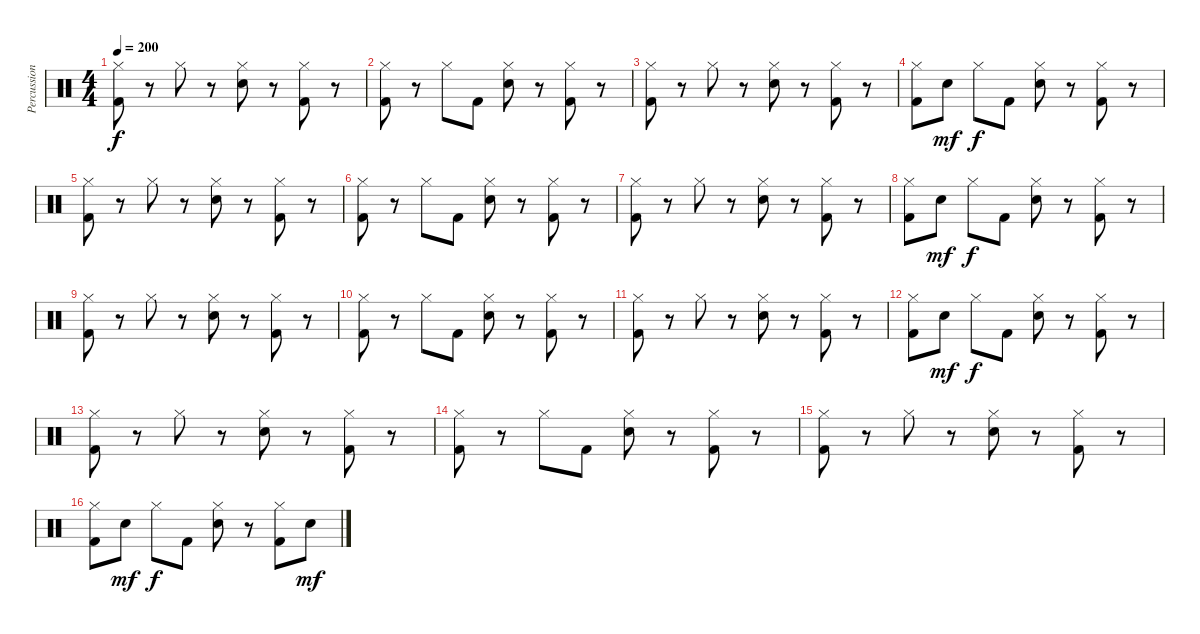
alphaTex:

\track ("Percussion" "Percussion") {instrument percussion}
\staff {score}
\articulation defaults
\ts (4 4)
\tempo 200
\clef neutral
\ks c
("Kick (hit) 2" "Hi-Hat (closed)").8{dy f} r.8 "Hi-Hat (closed)".8 r.8 ("Snare (hit) 2" "Hi-Hat (closed)").8 r.8 ("Hi-Hat (closed)" "Kick (hit) 2").8 r.8 |
("Kick (hit) 2" "Hi-Hat (closed)").8 r.8 "Hi-Hat (closed)".8 "Kick (hit) 2".8 ("Snare (hit) 2" "Hi-Hat (closed)").8 r.8 ("Kick (hit) 2" "Hi-Hat (closed)").8 r.8 |
("Kick (hit) 2" "Hi-Hat (closed)").8 r.8 "Hi-Hat (closed)".8 r.8 ("Snare (hit) 2" "Hi-Hat (closed)").8 r.8 ("Hi-Hat (closed)" "Kick (hit) 2").8 r.8 |
("Kick (hit) 2" "Hi-Hat (closed)").8 "Snare (hit) 2".8{dy mf} "Hi-Hat (closed)".8{dy f} "Kick (hit) 2".8 ("Snare (hit) 2" "Hi-Hat (closed)").8 r.8 ("Kick (hit) 2" "Hi-Hat (closed)").8 r.8 |
("Kick (hit) 2" "Hi-Hat (closed)").8 r.8 "Hi-Hat (closed)".8 r.8 ("Snare (hit) 2" "Hi-Hat (closed)").8 r.8 ("Hi-Hat (closed)" "Kick (hit) 2").8 r.8 |
("Kick (hit) 2" "Hi-Hat (closed)").8 r.8 "Hi-Hat (closed)".8 "Kick (hit) 2".8 ("Snare (hit) 2" "Hi-Hat (closed)").8 r.8 ("Kick (hit) 2" "Hi-Hat (closed)").8 r.8 |
("Kick (hit) 2" "Hi-Hat (closed)").8 r.8 "Hi-Hat (closed)".8 r.8 ("Snare (hit) 2" "Hi-Hat (closed)").8 r.8 ("Hi-Hat (closed)" "Kick (hit) 2").8 r.8 |
("Kick (hit) 2" "Hi-Hat (closed)").8 "Snare (hit) 2".8{dy mf} "Hi-Hat (closed)".8{dy f} "Kick (hit) 2".8 ("Snare (hit) 2" "Hi-Hat (closed)").8 r.8 ("Kick (hit) 2" "Hi-Hat (closed)").8 r.8 |
("Kick (hit) 2" "Hi-Hat (closed)").8 r.8 "Hi-Hat (closed)".8 r.8 ("Snare (hit) 2" "Hi-Hat (closed)").8 r.8 ("Hi-Hat (closed)" "Kick (hit) 2").8 r.8 |
("Kick (hit) 2" "Hi-Hat (closed)").8 r.8 "Hi-Hat (closed)".8 "Kick (hit) 2".8 ("Snare (hit) 2" "Hi-Hat (closed)").8 r.8 ("Kick (hit) 2" "Hi-Hat (closed)").8 r.8 |
("Kick (hit) 2" "Hi-Hat (closed)").8 r.8 "Hi-Hat (closed)".8 r.8 ("Snare (hit) 2" "Hi-Hat (closed)").8 r.8 ("Hi-Hat (closed)" "Kick (hit) 2").8 r.8 |
("Kick (hit) 2" "Hi-Hat (closed)").8 "Snare (hit) 2".8{dy mf} "Hi-Hat (closed)".8{dy f} "Kick (hit) 2".8 ("Snare (hit) 2" "Hi-Hat (closed)").8 r.8 ("Kick (hit) 2" "Hi-Hat (closed)").8 r.8 |
("Kick (hit) 2" "Hi-Hat (closed)").8 r.8 "Hi-Hat (closed)".8 r.8 ("Snare (hit) 2" "Hi-Hat (closed)").8 r.8 ("Hi-Hat (closed)" "Kick (hit) 2").8 r.8 |
("Kick (hit) 2" "Hi-Hat (closed)").8 r.8 "Hi-Hat (closed)".8 "Kick (hit) 2".8 ("Snare (hit) 2" "Hi-Hat (closed)").8 r.8 ("Kick (hit) 2" "Hi-Hat (closed)").8 r.8 |
("Kick (hit) 2" "Hi-Hat (closed)").8 r.8 "Hi-Hat (closed)".8 r.8 ("Snare (hit) 2" "Hi-Hat (closed)").8 r.8 ("Hi-Hat (closed)" "Kick (hit) 2").8 r.8 |
("Kick (hit) 2" "Hi-Hat (closed)").8 "Snare (hit) 2".8{dy mf} "Hi-Hat (closed)".8{dy f} "Kick (hit) 2".8 ("Snare (hit) 2" "Hi-Hat (closed)").8 r.8 ("Kick (hit) 2" "Hi-Hat (closed)").8 "Snare (hit) 2".8{dy mf}
